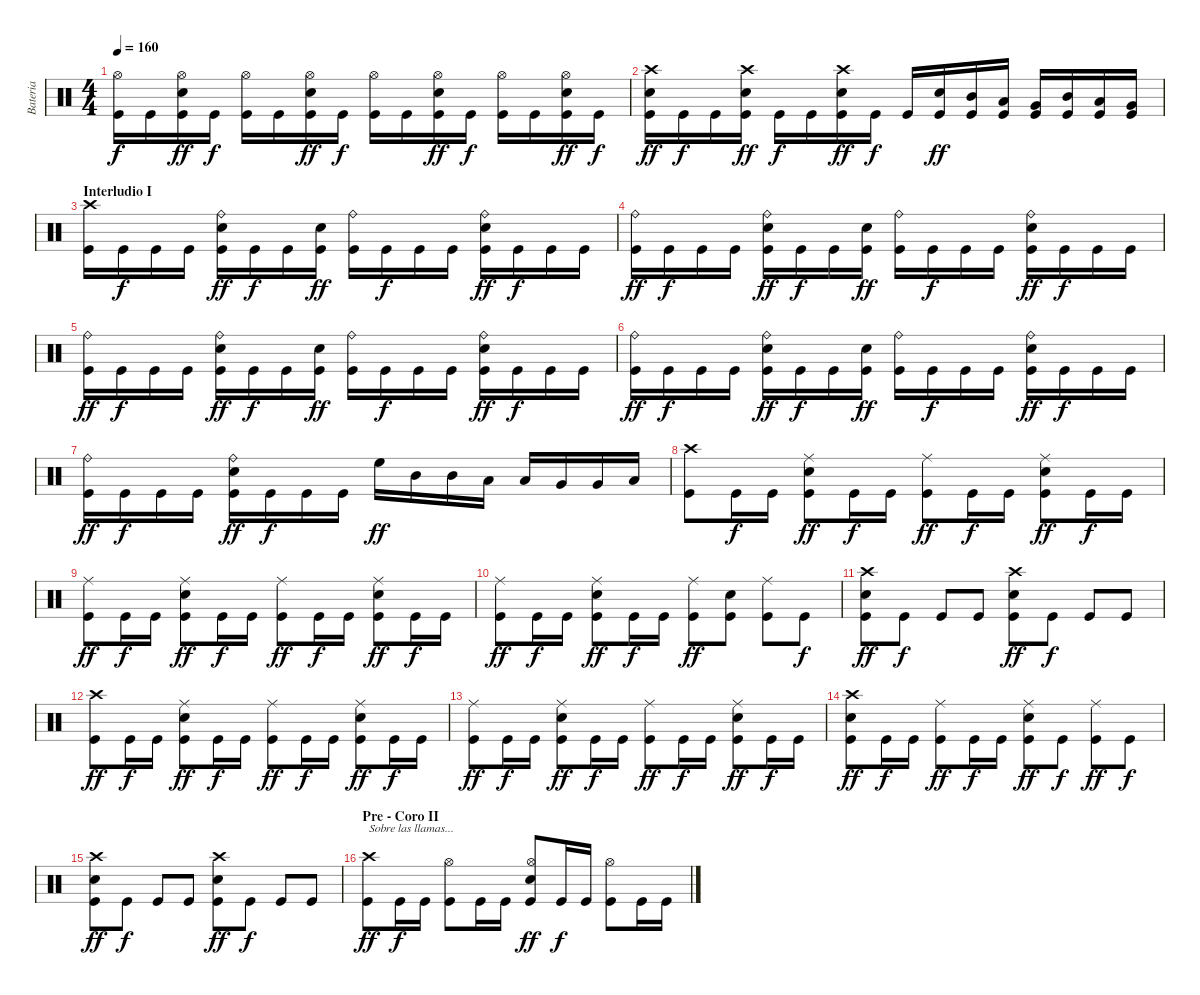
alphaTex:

\track ("Bateria" "Bateria") {instrument percussion}
\staff {score}
\articulation defaults
\ts (4 4)
\tempo 160
\clef neutral
\ks c
("Kick (hit)" "Hi-Hat (open)").16{dy f} "Kick (hit)".16 ("Kick (hit)" "Electric Snare (hit)" "Hi-Hat (open)").16{dy ff} "Kick (hit)".16{dy f} ("Kick (hit)" "Hi-Hat (open)").16 "Kick (hit)".16 ("Kick (hit)" "Electric Snare (hit)" "Hi-Hat (open)").16{dy ff} "Kick (hit)".16{dy f} ("Kick (hit)" "Hi-Hat (open)").16 "Kick (hit)".16 ("Kick (hit)" "Electric Snare (hit)" "Hi-Hat (open)").16{dy ff} "Kick (hit)".16{dy f} ("Kick (hit)" "Hi-Hat (open)").16 "Kick (hit)".16 ("Kick (hit)" "Electric Snare (hit)" "Hi-Hat (open)").16{dy ff} "Kick (hit)".16{dy f} |
("Kick (hit)" "Electric Snare (hit)" "Crash high (hit)").16{dy ff} "Kick (hit)".16{dy f} "Kick (hit)".16 ("Kick (hit)" "Electric Snare (hit)" "Crash high (hit)").16{dy ff} "Kick (hit)".16{dy f} "Kick (hit)".16 ("Kick (hit)" "Electric Snare (hit)" "Crash high (hit)").16{dy ff} "Kick (hit)".16{dy f} "Kick (hit)".16 ("Kick (hit)" "Electric Snare (hit)").16{dy ff} ("Kick (hit)" "Mid Tom (hit)").16 ("Kick (hit)" "Low Tom (hit)").16 ("Kick (hit)" "Very Low Tom (hit)").16 ("Kick (hit)" "Mid Tom (hit)").16 ("Kick (hit)" "Low Tom (hit)").16 ("Kick (hit)" "Very Low Tom (hit)").16 |
\section ("" "Interludio I")
("Kick (hit)" "Crash high (hit)").16 "Kick (hit)".16{dy f} "Kick (hit)".16 "Kick (hit)".16 ("Kick (hit)" "Electric Snare (hit)" "Ride (bell)").16{dy ff} "Kick (hit)".16{dy f} "Kick (hit)".16 ("Kick (hit)" "Electric Snare (hit)").16{dy ff} ("Kick (hit)" "Ride (bell)").16 "Kick (hit)".16{dy f} "Kick (hit)".16 "Kick (hit)".16 ("Kick (hit)" "Electric Snare (hit)" "Ride (bell)").16{dy ff} "Kick (hit)".16{dy f} "Kick (hit)".16 "Kick (hit)".16 |
("Kick (hit)" "Ride (bell)").16{dy ff} "Kick (hit)".16{dy f} "Kick (hit)".16 "Kick (hit)".16 ("Kick (hit)" "Electric Snare (hit)" "Ride (bell)").16{dy ff} "Kick (hit)".16{dy f} "Kick (hit)".16 ("Kick (hit)" "Electric Snare (hit)").16{dy ff} ("Kick (hit)" "Ride (bell)").16 "Kick (hit)".16{dy f} "Kick (hit)".16 "Kick (hit)".16 ("Kick (hit)" "Electric Snare (hit)" "Ride (bell)").16{dy ff} "Kick (hit)".16{dy f} "Kick (hit)".16 "Kick (hit)".16 |
("Kick (hit)" "Ride (bell)").16{dy ff} "Kick (hit)".16{dy f} "Kick (hit)".16 "Kick (hit)".16 ("Kick (hit)" "Electric Snare (hit)" "Ride (bell)").16{dy ff} "Kick (hit)".16{dy f} "Kick (hit)".16 ("Kick (hit)" "Electric Snare (hit)").16{dy ff} ("Kick (hit)" "Ride (bell)").16 "Kick (hit)".16{dy f} "Kick (hit)".16 "Kick (hit)".16 ("Kick (hit)" "Electric Snare (hit)" "Ride (bell)").16{dy ff} "Kick (hit)".16{dy f} "Kick (hit)".16 "Kick (hit)".16 |
("Kick (hit)" "Ride (bell)").16{dy ff} "Kick (hit)".16{dy f} "Kick (hit)".16 "Kick (hit)".16 ("Kick (hit)" "Electric Snare (hit)" "Ride (bell)").16{dy ff} "Kick (hit)".16{dy f} "Kick (hit)".16 ("Kick (hit)" "Electric Snare (hit)").16{dy ff} ("Kick (hit)" "Ride (bell)").16 "Kick (hit)".16{dy f} "Kick (hit)".16 "Kick (hit)".16 ("Kick (hit)" "Electric Snare (hit)" "Ride (bell)").16{dy ff} "Kick (hit)".16{dy f} "Kick (hit)".16 "Kick (hit)".16 |
("Kick (hit)" "Ride (bell)").16{dy ff} "Kick (hit)".16{dy f} "Kick (hit)".16 "Kick (hit)".16 ("Kick (hit)" "Electric Snare (hit)" "Ride (bell)").16{dy ff} "Kick (hit)".16{dy f} "Kick (hit)".16 "Kick (hit)".16 "High Floor Tom (hit)".16{dy ff} "Mid Tom (hit)".16 "Mid Tom (hit)".16 "Low Tom (hit)".16 "Low Tom (hit)".16 "Very Low Tom (hit)".16 "Very Low Tom (hit)".16 "Low Floor Tom (hit)".16 |
("Kick (hit)" "Crash high (hit)").8 "Kick (hit)".16{dy f} "Kick (hit)".16 ("Kick (hit)" "Ride (middle)" "Electric Snare (hit)").8{dy ff} "Kick (hit)".16{dy f} "Kick (hit)".16 ("Kick (hit)" "Ride (middle)").8{dy ff} "Kick (hit)".16{dy f} "Kick (hit)".16 ("Kick (hit)" "Ride (middle)" "Electric Snare (hit)").8{dy ff} "Kick (hit)".16{dy f} "Kick (hit)".16 |
("Kick (hit)" "Ride (middle)").8{dy ff} "Kick (hit)".16{dy f} "Kick (hit)".16 ("Kick (hit)" "Ride (middle)" "Electric Snare (hit)").8{dy ff} "Kick (hit)".16{dy f} "Kick (hit)".16 ("Kick (hit)" "Ride (middle)").8{dy ff} "Kick (hit)".16{dy f} "Kick (hit)".16 ("Kick (hit)" "Ride (middle)" "Electric Snare (hit)").8{dy ff} "Kick (hit)".16{dy f} "Kick (hit)".16 |
("Kick (hit)" "Ride (middle)").8{dy ff} "Kick (hit)".16{dy f} "Kick (hit)".16 ("Kick (hit)" "Ride (middle)" "Electric Snare (hit)").8{dy ff} "Kick (hit)".16{dy f} "Kick (hit)".16 ("Kick (hit)" "Ride (middle)").8{dy ff} ("Kick (hit)" "Electric Snare (hit)").8 ("Kick (hit)" "Ride (middle)").8 "Kick (hit)".8{dy f} |
("Kick (hit)" "Electric Snare (hit)" "Crash high (hit)").8{dy ff} "Kick (hit)".8{dy f} "Kick (hit)".8 "Kick (hit)".8 ("Kick (hit)" "Electric Snare (hit)" "Crash high (hit)").8{dy ff} "Kick (hit)".8{dy f} "Kick (hit)".8 "Kick (hit)".8 |
("Kick (hit)" "Crash high (hit)").8{dy ff} "Kick (hit)".16{dy f} "Kick (hit)".16 ("Kick (hit)" "Ride (middle)" "Electric Snare (hit)").8{dy ff} "Kick (hit)".16{dy f} "Kick (hit)".16 ("Kick (hit)" "Ride (middle)").8{dy ff} "Kick (hit)".16{dy f} "Kick (hit)".16 ("Kick (hit)" "Ride (middle)" "Electric Snare (hit)").8{dy ff} "Kick (hit)".16{dy f} "Kick (hit)".16 |
("Kick (hit)" "Ride (middle)").8{dy ff} "Kick (hit)".16{dy f} "Kick (hit)".16 ("Kick (hit)" "Ride (middle)" "Electric Snare (hit)").8{dy ff} "Kick (hit)".16{dy f} "Kick (hit)".16 ("Kick (hit)" "Ride (middle)").8{dy ff} "Kick (hit)".16{dy f} "Kick (hit)".16 ("Kick (hit)" "Ride (middle)" "Electric Snare (hit)").8{dy ff} "Kick (hit)".16{dy f} "Kick (hit)".16 |
("Kick (hit)" "Crash high (hit)" "Electric Snare (hit)").8{dy ff} "Kick (hit)".16{dy f} "Kick (hit)".16 ("Kick (hit)" "Ride (middle)").8{dy ff} "Kick (hit)".16{dy f} "Kick (hit)".16 ("Kick (hit)" "Ride (middle)" "Electric Snare (hit)").8{dy ff} "Kick (hit)".8{dy f} ("Kick (hit)" "Ride (middle)").8{dy ff} "Kick (hit)".8{dy f} |
("Kick (hit)" "Electric Snare (hit)" "Crash high (hit)").8{dy ff} "Kick (hit)".8{dy f} "Kick (hit)".8 "Kick (hit)".8 ("Kick (hit)" "Electric Snare (hit)" "Crash high (hit)").8{dy ff} "Kick (hit)".8{dy f} "Kick (hit)".8 "Kick (hit)".8 |
\section ("" "Pre - Coro II")
("Kick (hit)" "Crash high (hit)").8{txt "Sobre las llamas..." dy ff} "Kick (hit)".16{dy f} "Kick (hit)".16 ("Kick (hit)" "Hi-Hat (open)").8 "Kick (hit)".16 "Kick (hit)".16 ("Kick (hit)" "Electric Snare (hit)" "Hi-Hat (open)").8{dy ff} "Kick (hit)".16{dy f} "Kick (hit)".16 ("Kick (hit)" "Hi-Hat (open)").8 "Kick (hit)".16 "Kick (hit)".16
